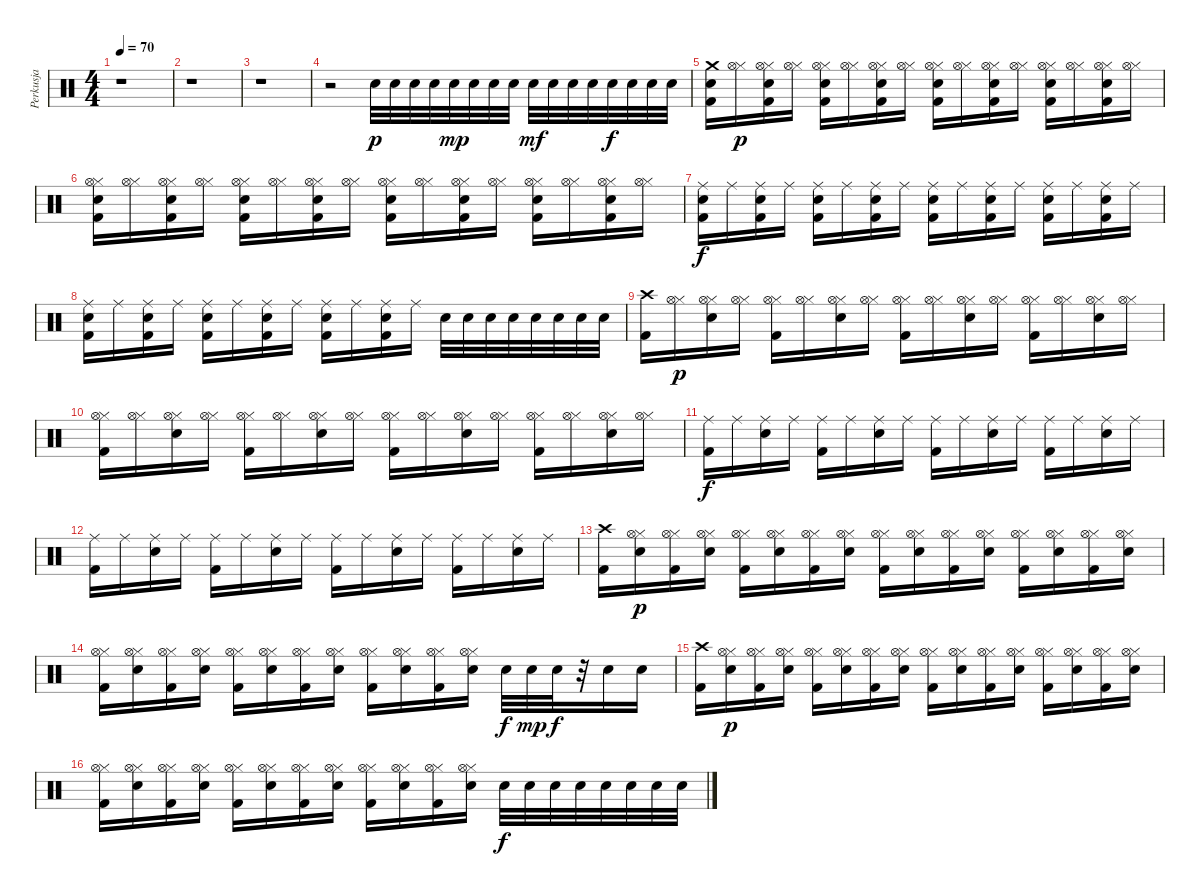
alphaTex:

\track ("Perkusja" "Perkusja") {instrument percussion}
\staff {score}
\articulation defaults
\ts (4 4)
\tempo 70
\clef neutral
\ks c
r.1{dy p} |
r.1 |
r.1 |
r.2 "Electric Snare (hit)".32 "Electric Snare (hit)".32 "Electric Snare (hit)".32 "Electric Snare (hit)".32 "Electric Snare (hit)".32{dy mp} "Electric Snare (hit)".32 "Electric Snare (hit)".32 "Electric Snare (hit)".32 "Electric Snare (hit)".32{dy mf} "Electric Snare (hit)".32 "Electric Snare (hit)".32 "Electric Snare (hit)".32 "Electric Snare (hit)".32{dy f} "Electric Snare (hit)".32 "Electric Snare (hit)".32 "Electric Snare (hit)".32 |
("Kick (hit) 2" "Crash medium (hit)" "Electric Snare (hit)").16 ("Hi-Hat (closed)" "Hi-Hat (open)").16{dy p} ("Kick (hit) 2" "Hi-Hat (closed)" "Hi-Hat (open)" "Electric Snare (hit)").16 ("Hi-Hat (closed)" "Hi-Hat (open)").16 ("Kick (hit) 2" "Hi-Hat (closed)" "Hi-Hat (open)" "Electric Snare (hit)").16 ("Hi-Hat (closed)" "Hi-Hat (open)").16 ("Kick (hit) 2" "Hi-Hat (closed)" "Hi-Hat (open)" "Electric Snare (hit)").16 ("Hi-Hat (closed)" "Hi-Hat (open)").16 ("Kick (hit) 2" "Hi-Hat (closed)" "Hi-Hat (open)" "Electric Snare (hit)").16 ("Hi-Hat (closed)" "Hi-Hat (open)").16 ("Kick (hit) 2" "Hi-Hat (closed)" "Hi-Hat (open)" "Electric Snare (hit)").16 ("Hi-Hat (closed)" "Hi-Hat (open)").16 ("Kick (hit) 2" "Hi-Hat (closed)" "Hi-Hat (open)" "Electric Snare (hit)").16 ("Hi-Hat (closed)" "Hi-Hat (open)").16 ("Kick (hit) 2" "Hi-Hat (closed)" "Hi-Hat (open)" "Electric Snare (hit)").16 ("Hi-Hat (closed)" "Hi-Hat (open)").16 |
("Kick (hit) 2" "Hi-Hat (closed)" "Hi-Hat (open)" "Electric Snare (hit)").16 ("Hi-Hat (closed)" "Hi-Hat (open)").16 ("Kick (hit) 2" "Hi-Hat (closed)" "Hi-Hat (open)" "Electric Snare (hit)").16 ("Hi-Hat (closed)" "Hi-Hat (open)").16 ("Kick (hit) 2" "Hi-Hat (closed)" "Hi-Hat (open)" "Electric Snare (hit)").16 ("Hi-Hat (closed)" "Hi-Hat (open)").16 ("Kick (hit) 2" "Hi-Hat (closed)" "Hi-Hat (open)" "Electric Snare (hit)").16 ("Hi-Hat (closed)" "Hi-Hat (open)").16 ("Kick (hit) 2" "Hi-Hat (closed)" "Hi-Hat (open)" "Electric Snare (hit)").16 ("Hi-Hat (closed)" "Hi-Hat (open)").16 ("Kick (hit) 2" "Hi-Hat (closed)" "Hi-Hat (open)" "Electric Snare (hit)").16 ("Hi-Hat (closed)" "Hi-Hat (open)").16 ("Kick (hit) 2" "Hi-Hat (closed)" "Hi-Hat (open)" "Electric Snare (hit)").16 ("Hi-Hat (closed)" "Hi-Hat (open)").16 ("Kick (hit) 2" "Hi-Hat (closed)" "Hi-Hat (open)" "Electric Snare (hit)").16 ("Hi-Hat (closed)" "Hi-Hat (open)").16 |
("Kick (hit) 2" "Electric Snare (hit)" "Ride (middle)").16{dy f} "Ride (middle)".16 ("Kick (hit) 2" "Electric Snare (hit)" "Ride (middle)").16 "Ride (middle)".16 ("Kick (hit) 2" "Electric Snare (hit)" "Ride (middle)").16 "Ride (middle)".16 ("Kick (hit) 2" "Electric Snare (hit)" "Ride (middle)").16 "Ride (middle)".16 ("Kick (hit) 2" "Electric Snare (hit)" "Ride (middle)").16 "Ride (middle)".16 ("Kick (hit) 2" "Electric Snare (hit)" "Ride (middle)").16 "Ride (middle)".16 ("Kick (hit) 2" "Electric Snare (hit)" "Ride (middle)").16 "Ride (middle)".16 ("Kick (hit) 2" "Electric Snare (hit)" "Ride (middle)").16 "Ride (middle)".16 |
("Kick (hit) 2" "Electric Snare (hit)" "Ride (middle)").16 "Ride (middle)".16 ("Kick (hit) 2" "Electric Snare (hit)" "Ride (middle)").16 "Ride (middle)".16 ("Kick (hit) 2" "Electric Snare (hit)" "Ride (middle)").16 "Ride (middle)".16 ("Kick (hit) 2" "Electric Snare (hit)" "Ride (middle)").16 "Ride (middle)".16 ("Kick (hit) 2" "Electric Snare (hit)" "Ride (middle)").16 "Ride (middle)".16 ("Kick (hit) 2" "Electric Snare (hit)" "Ride (middle)").16 "Ride (middle)".16 "Electric Snare (hit)".32 "Electric Snare (hit)".32 "Electric Snare (hit)".32 "Electric Snare (hit)".32 "Electric Snare (hit)".32 "Electric Snare (hit)".32 "Electric Snare (hit)".32 "Electric Snare (hit)".32 |
("Kick (hit) 2" "Crash high (hit)").16 ("Hi-Hat (closed)" "Hi-Hat (open)").16{dy p} ("Electric Snare (hit)" "Hi-Hat (closed)" "Hi-Hat (open)").16 ("Hi-Hat (closed)" "Hi-Hat (open)").16 ("Kick (hit) 2" "Hi-Hat (closed)" "Hi-Hat (open)").16 ("Hi-Hat (closed)" "Hi-Hat (open)").16 ("Electric Snare (hit)" "Hi-Hat (closed)" "Hi-Hat (open)").16 ("Hi-Hat (closed)" "Hi-Hat (open)").16 ("Kick (hit) 2" "Hi-Hat (closed)" "Hi-Hat (open)").16 ("Hi-Hat (closed)" "Hi-Hat (open)").16 ("Electric Snare (hit)" "Hi-Hat (closed)" "Hi-Hat (open)").16 ("Hi-Hat (closed)" "Hi-Hat (open)").16 ("Kick (hit) 2" "Hi-Hat (closed)" "Hi-Hat (open)").16 ("Hi-Hat (closed)" "Hi-Hat (open)").16 ("Electric Snare (hit)" "Hi-Hat (closed)" "Hi-Hat (open)").16 ("Hi-Hat (closed)" "Hi-Hat (open)").16 |
("Kick (hit) 2" "Hi-Hat (closed)" "Hi-Hat (open)").16 ("Hi-Hat (closed)" "Hi-Hat (open)").16 ("Electric Snare (hit)" "Hi-Hat (closed)" "Hi-Hat (open)").16 ("Hi-Hat (closed)" "Hi-Hat (open)").16 ("Kick (hit) 2" "Hi-Hat (closed)" "Hi-Hat (open)").16 ("Hi-Hat (closed)" "Hi-Hat (open)").16 ("Electric Snare (hit)" "Hi-Hat (closed)" "Hi-Hat (open)").16 ("Hi-Hat (closed)" "Hi-Hat (open)").16 ("Kick (hit) 2" "Hi-Hat (closed)" "Hi-Hat (open)").16 ("Hi-Hat (closed)" "Hi-Hat (open)").16 ("Electric Snare (hit)" "Hi-Hat (closed)" "Hi-Hat (open)").16 ("Hi-Hat (closed)" "Hi-Hat (open)").16 ("Kick (hit) 2" "Hi-Hat (closed)" "Hi-Hat (open)").16 ("Hi-Hat (closed)" "Hi-Hat (open)").16 ("Electric Snare (hit)" "Hi-Hat (closed)" "Hi-Hat (open)").16 ("Hi-Hat (closed)" "Hi-Hat (open)").16 |
("Kick (hit) 2" "Ride (middle)").16{dy f} "Ride (middle)".16 ("Electric Snare (hit)" "Ride (middle)").16 "Ride (middle)".16 ("Kick (hit) 2" "Ride (middle)").16 "Ride (middle)".16 ("Electric Snare (hit)" "Ride (middle)").16 "Ride (middle)".16 ("Kick (hit) 2" "Ride (middle)").16 "Ride (middle)".16 ("Electric Snare (hit)" "Ride (middle)").16 "Ride (middle)".16 ("Kick (hit) 2" "Ride (middle)").16 "Ride (middle)".16 ("Electric Snare (hit)" "Ride (middle)").16 "Ride (middle)".16 |
("Kick (hit) 2" "Ride (middle)").16 "Ride (middle)".16 ("Electric Snare (hit)" "Ride (middle)").16 "Ride (middle)".16 ("Kick (hit) 2" "Ride (middle)").16 "Ride (middle)".16 ("Electric Snare (hit)" "Ride (middle)").16 "Ride (middle)".16 ("Kick (hit) 2" "Ride (middle)").16 "Ride (middle)".16 ("Electric Snare (hit)" "Ride (middle)").16 "Ride (middle)".16 ("Kick (hit) 2" "Ride (middle)").16 "Ride (middle)".16 ("Electric Snare (hit)" "Ride (middle)").16 "Ride (middle)".16 |
("Kick (hit) 2" "Crash high (hit)").16 ("Electric Snare (hit)" "Hi-Hat (closed)" "Hi-Hat (open)").16{dy p} ("Kick (hit) 2" "Hi-Hat (closed)" "Hi-Hat (open)").16 ("Electric Snare (hit)" "Hi-Hat (closed)" "Hi-Hat (open)").16 ("Kick (hit) 2" "Hi-Hat (closed)" "Hi-Hat (open)").16 ("Electric Snare (hit)" "Hi-Hat (closed)" "Hi-Hat (open)").16 ("Kick (hit) 2" "Hi-Hat (closed)" "Hi-Hat (open)").16 ("Electric Snare (hit)" "Hi-Hat (closed)" "Hi-Hat (open)").16 ("Kick (hit) 2" "Hi-Hat (closed)" "Hi-Hat (open)").16 ("Electric Snare (hit)" "Hi-Hat (closed)" "Hi-Hat (open)").16 ("Kick (hit) 2" "Hi-Hat (closed)" "Hi-Hat (open)").16 ("Electric Snare (hit)" "Hi-Hat (closed)" "Hi-Hat (open)").16 ("Kick (hit) 2" "Hi-Hat (closed)" "Hi-Hat (open)").16 ("Electric Snare (hit)" "Hi-Hat (closed)" "Hi-Hat (open)").16 ("Kick (hit) 2" "Hi-Hat (closed)" "Hi-Hat (open)").16 ("Electric Snare (hit)" "Hi-Hat (closed)" "Hi-Hat (open)").16 |
("Kick (hit) 2" "Hi-Hat (closed)" "Hi-Hat (open)").16 ("Electric Snare (hit)" "Hi-Hat (closed)" "Hi-Hat (open)").16 ("Kick (hit) 2" "Hi-Hat (closed)" "Hi-Hat (open)").16 ("Electric Snare (hit)" "Hi-Hat (closed)" "Hi-Hat (open)").16 ("Kick (hit) 2" "Hi-Hat (closed)" "Hi-Hat (open)").16 ("Electric Snare (hit)" "Hi-Hat (closed)" "Hi-Hat (open)").16 ("Kick (hit) 2" "Hi-Hat (closed)" "Hi-Hat (open)").16 ("Electric Snare (hit)" "Hi-Hat (closed)" "Hi-Hat (open)").16 ("Kick (hit) 2" "Hi-Hat (closed)" "Hi-Hat (open)").16 ("Electric Snare (hit)" "Hi-Hat (closed)" "Hi-Hat (open)").16 ("Kick (hit) 2" "Hi-Hat (closed)" "Hi-Hat (open)").16 ("Electric Snare (hit)" "Hi-Hat (closed)" "Hi-Hat (open)").16 "Electric Snare (hit)".32{dy f} "Electric Snare (hit)".32{dy mp} "Electric Snare (hit)".32{dy f} r.32 "Electric Snare (hit)".16 "Electric Snare (hit)".16 |
("Kick (hit) 2" "Crash high (hit)").16 ("Electric Snare (hit)" "Hi-Hat (closed)" "Hi-Hat (open)").16{dy p} ("Kick (hit) 2" "Hi-Hat (closed)" "Hi-Hat (open)").16 ("Electric Snare (hit)" "Hi-Hat (closed)" "Hi-Hat (open)").16 ("Kick (hit) 2" "Hi-Hat (closed)" "Hi-Hat (open)").16 ("Electric Snare (hit)" "Hi-Hat (closed)" "Hi-Hat (open)").16 ("Kick (hit) 2" "Hi-Hat (closed)" "Hi-Hat (open)").16 ("Electric Snare (hit)" "Hi-Hat (closed)" "Hi-Hat (open)").16 ("Kick (hit) 2" "Hi-Hat (closed)" "Hi-Hat (open)").16 ("Electric Snare (hit)" "Hi-Hat (closed)" "Hi-Hat (open)").16 ("Kick (hit) 2" "Hi-Hat (closed)" "Hi-Hat (open)").16 ("Electric Snare (hit)" "Hi-Hat (closed)" "Hi-Hat (open)").16 ("Kick (hit) 2" "Hi-Hat (closed)" "Hi-Hat (open)").16 ("Electric Snare (hit)" "Hi-Hat (closed)" "Hi-Hat (open)").16 ("Kick (hit) 2" "Hi-Hat (closed)" "Hi-Hat (open)").16 ("Electric Snare (hit)" "Hi-Hat (closed)" "Hi-Hat (open)").16 |
("Kick (hit) 2" "Hi-Hat (closed)" "Hi-Hat (open)").16 ("Electric Snare (hit)" "Hi-Hat (closed)" "Hi-Hat (open)").16 ("Kick (hit) 2" "Hi-Hat (closed)" "Hi-Hat (open)").16 ("Electric Snare (hit)" "Hi-Hat (closed)" "Hi-Hat (open)").16 ("Kick (hit) 2" "Hi-Hat (closed)" "Hi-Hat (open)").16 ("Electric Snare (hit)" "Hi-Hat (closed)" "Hi-Hat (open)").16 ("Kick (hit) 2" "Hi-Hat (closed)" "Hi-Hat (open)").16 ("Electric Snare (hit)" "Hi-Hat (closed)" "Hi-Hat (open)").16 ("Kick (hit) 2" "Hi-Hat (closed)" "Hi-Hat (open)").16 ("Electric Snare (hit)" "Hi-Hat (closed)" "Hi-Hat (open)").16 ("Kick (hit) 2" "Hi-Hat (closed)" "Hi-Hat (open)").16 ("Electric Snare (hit)" "Hi-Hat (closed)" "Hi-Hat (open)").16 "Electric Snare (hit)".32{dy f} "Electric Snare (hit)".32 "Electric Snare (hit)".32 "Electric Snare (hit)".32 "Electric Snare (hit)".32 "Electric Snare (hit)".32 "Electric Snare (hit)".32 "Electric Snare (hit)".32
